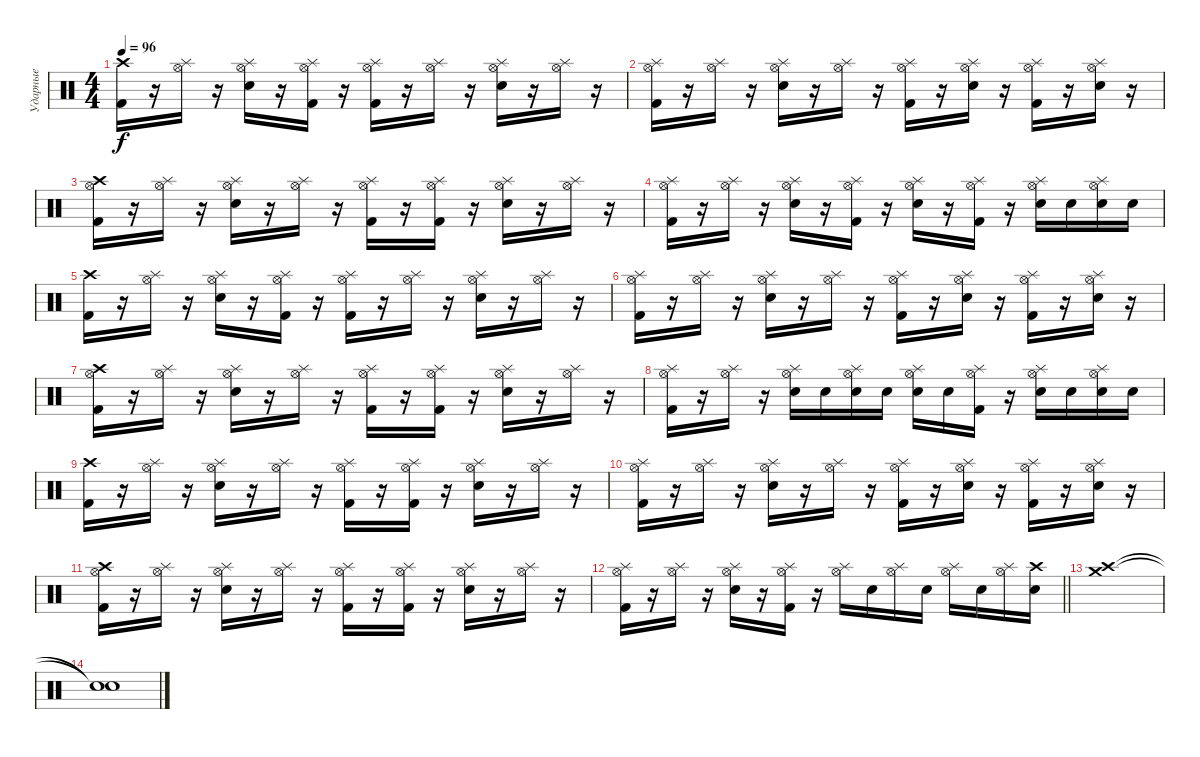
\track ("Ударные" "Ударные") {instrument percussion}
\staff {score}
\articulation defaults
\ts (4 4)
\tempo 96
\clef neutral
\ks c
("Crash high (hit)" "Kick (hit) 2").16{dy f} r.16 ("Hi-Hat (open)" "Splash (hit)").16 r.16 ("Hi-Hat (open)" "Splash (hit)" "Snare (hit) 2").16 r.16 ("Hi-Hat (open)" "Splash (hit)" "Kick (hit) 2").16 r.16 ("Hi-Hat (open)" "Splash (hit)" "Kick (hit) 2").16 r.16 ("Hi-Hat (open)" "Splash (hit)").16 r.16 ("Hi-Hat (open)" "Splash (hit)" "Snare (hit) 2").16 r.16 ("Hi-Hat (open)" "Splash (hit)").16 r.16 |
("Hi-Hat (open)" "Splash (hit)" "Kick (hit) 2").16 r.16 ("Hi-Hat (open)" "Splash (hit)").16 r.16 ("Hi-Hat (open)" "Splash (hit)" "Snare (hit) 2").16 r.16 ("Hi-Hat (open)" "Splash (hit)").16 r.16 ("Hi-Hat (open)" "Splash (hit)" "Kick (hit) 2").16 r.16 ("Hi-Hat (open)" "Splash (hit)" "Snare (hit) 2").16 r.16 ("Hi-Hat (open)" "Splash (hit)" "Kick (hit) 2").16 r.16 ("Hi-Hat (open)" "Splash (hit)" "Snare (hit) 2").16 r.16 |
("Crash high (hit)" "Hi-Hat (open)" "Kick (hit) 2").16 r.16 ("Hi-Hat (open)" "Splash (hit)").16 r.16 ("Hi-Hat (open)" "Splash (hit)" "Snare (hit) 2").16 r.16 ("Hi-Hat (open)" "Splash (hit)").16 r.16 ("Hi-Hat (open)" "Splash (hit)" "Kick (hit) 2").16 r.16 ("Hi-Hat (open)" "Splash (hit)" "Kick (hit) 2").16 r.16 ("Hi-Hat (open)" "Splash (hit)" "Snare (hit) 2").16 r.16 ("Hi-Hat (open)" "Splash (hit)").16 r.16 |
("Hi-Hat (open)" "Splash (hit)" "Kick (hit) 2").16 r.16 ("Hi-Hat (open)" "Splash (hit)").16 r.16 ("Hi-Hat (open)" "Splash (hit)" "Snare (hit) 2").16 r.16 ("Hi-Hat (open)" "Splash (hit)" "Kick (hit) 2").16 r.16 ("Hi-Hat (open)" "Splash (hit)" "Snare (hit) 2").16 r.16 ("Hi-Hat (open)" "Splash (hit)" "Kick (hit) 2").16 r.16 ("Hi-Hat (open)" "Splash (hit)" "Snare (hit) 2").16 "Snare (hit) 2".16 ("Hi-Hat (open)" "Splash (hit)" "Snare (hit) 2").16 "Snare (hit) 2".16 |
("Crash high (hit)" "Kick (hit) 2").16 r.16 ("Hi-Hat (open)" "Splash (hit)").16 r.16 ("Hi-Hat (open)" "Splash (hit)" "Snare (hit) 2").16 r.16 ("Hi-Hat (open)" "Splash (hit)" "Kick (hit) 2").16 r.16 ("Hi-Hat (open)" "Splash (hit)" "Kick (hit) 2").16 r.16 ("Hi-Hat (open)" "Splash (hit)").16 r.16 ("Hi-Hat (open)" "Splash (hit)" "Snare (hit) 2").16 r.16 ("Hi-Hat (open)" "Splash (hit)").16 r.16 |
("Hi-Hat (open)" "Splash (hit)" "Kick (hit) 2").16 r.16 ("Hi-Hat (open)" "Splash (hit)").16 r.16 ("Hi-Hat (open)" "Splash (hit)" "Snare (hit) 2").16 r.16 ("Hi-Hat (open)" "Splash (hit)").16 r.16 ("Hi-Hat (open)" "Splash (hit)" "Kick (hit) 2").16 r.16 ("Hi-Hat (open)" "Splash (hit)" "Snare (hit) 2").16 r.16 ("Hi-Hat (open)" "Splash (hit)" "Kick (hit) 2").16 r.16 ("Hi-Hat (open)" "Splash (hit)" "Snare (hit) 2").16 r.16 |
("Crash high (hit)" "Hi-Hat (open)" "Kick (hit) 2").16 r.16 ("Hi-Hat (open)" "Splash (hit)").16 r.16 ("Hi-Hat (open)" "Splash (hit)" "Snare (hit) 2").16 r.16 ("Hi-Hat (open)" "Splash (hit)").16 r.16 ("Hi-Hat (open)" "Splash (hit)" "Kick (hit) 2").16 r.16 ("Hi-Hat (open)" "Splash (hit)" "Kick (hit) 2").16 r.16 ("Hi-Hat (open)" "Splash (hit)" "Snare (hit) 2").16 r.16 ("Hi-Hat (open)" "Splash (hit)").16 r.16 |
("Hi-Hat (open)" "Splash (hit)" "Kick (hit) 2").16 r.16 ("Hi-Hat (open)" "Splash (hit)").16 r.16 ("Hi-Hat (open)" "Splash (hit)" "Snare (hit) 2").16 "Snare (hit) 2".16 ("Hi-Hat (open)" "Splash (hit)" "Snare (hit) 2").16 "Snare (hit) 2".16 ("Hi-Hat (open)" "Splash (hit)" "Snare (hit) 2").16 "Snare (hit) 2".16 ("Hi-Hat (open)" "Splash (hit)" "Kick (hit) 2").16 r.16 ("Hi-Hat (open)" "Splash (hit)" "Snare (hit) 2").16 "Snare (hit) 2".16 ("Hi-Hat (open)" "Splash (hit)" "Snare (hit) 2").16 "Snare (hit) 2".16 |
("Crash high (hit)" "Kick (hit) 2").16 r.16 ("Hi-Hat (open)" "Splash (hit)").16 r.16 ("Hi-Hat (open)" "Splash (hit)" "Snare (hit) 2").16 r.16 ("Hi-Hat (open)" "Splash (hit)").16 r.16 ("Hi-Hat (open)" "Splash (hit)" "Kick (hit) 2").16 r.16 ("Hi-Hat (open)" "Splash (hit)" "Kick (hit) 2").16 r.16 ("Hi-Hat (open)" "Splash (hit)" "Snare (hit) 2").16 r.16 ("Hi-Hat (open)" "Splash (hit)").16 r.16 |
("Hi-Hat (open)" "Splash (hit)" "Kick (hit) 2").16 r.16 ("Hi-Hat (open)" "Splash (hit)").16 r.16 ("Hi-Hat (open)" "Splash (hit)" "Snare (hit) 2").16 r.16 ("Hi-Hat (open)" "Splash (hit)").16 r.16 ("Hi-Hat (open)" "Splash (hit)" "Kick (hit) 2").16 r.16 ("Hi-Hat (open)" "Splash (hit)" "Snare (hit) 2").16 r.16 ("Hi-Hat (open)" "Splash (hit)" "Kick (hit) 2").16 r.16 ("Hi-Hat (open)" "Splash (hit)" "Snare (hit) 2").16 r.16 |
("Crash high (hit)" "Hi-Hat (open)" "Kick (hit) 2").16 r.16 ("Hi-Hat (open)" "Splash (hit)").16 r.16 ("Hi-Hat (open)" "Splash (hit)" "Snare (hit) 2").16 r.16 ("Hi-Hat (open)" "Splash (hit)").16 r.16 ("Hi-Hat (open)" "Splash (hit)" "Kick (hit) 2").16 r.16 ("Hi-Hat (open)" "Splash (hit)" "Kick (hit) 2").16 r.16 ("Hi-Hat (open)" "Splash (hit)" "Snare (hit) 2").16 r.16 ("Hi-Hat (open)" "Splash (hit)").16 r.16 |
\barLineRight lightlight
("Hi-Hat (open)" "Splash (hit)" "Kick (hit) 2").16 r.16 ("Hi-Hat (open)" "Splash (hit)").16 r.16 ("Hi-Hat (open)" "Splash (hit)" "Snare (hit) 2").16 r.16 ("Hi-Hat (open)" "Splash (hit)" "Kick (hit) 2").16 r.16 ("Hi-Hat (open)" "Splash (hit)").16 "Snare (hit) 2".16 ("Hi-Hat (open)" "Splash (hit)").16 "Snare (hit) 2".16 ("Hi-Hat (open)" "Splash (hit)").16 "Snare (hit) 2".16 ("Hi-Hat (open)" "Splash (hit)").16 ("Crash high (hit)" "Snare (hit) 2").16 |
("Crash high (hit)" "Crash medium (hit)").1 |
("Snare (hit)"{t} "Snare (hit)"{t}).1
